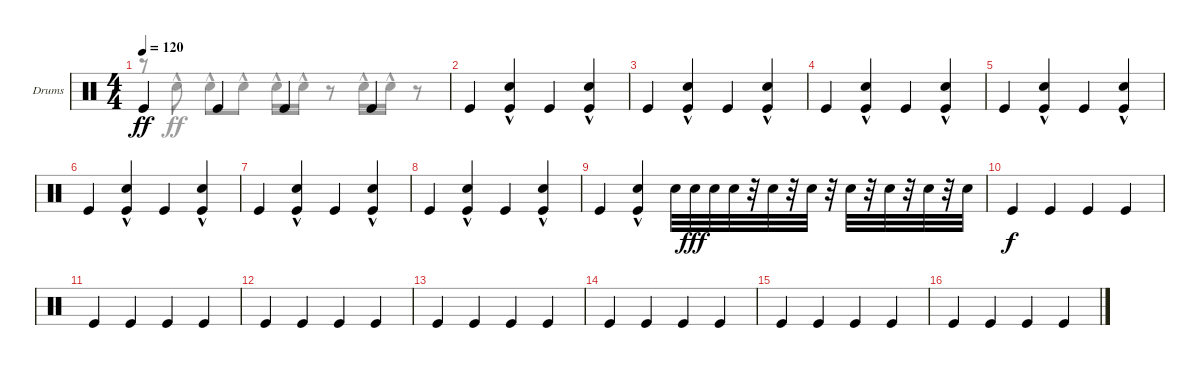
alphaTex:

\defaultSystemsLayout 4
\bracketExtendMode nobrackets
\firstSystemTrackNameOrientation horizontal
\otherSystemsTrackNameOrientation horizontal
\track ("Drumkit" "Drums") {instrument percussion}
\staff {score}
\articulation defaults
\voice
\ts (4 4)
\tempo 120
\clef neutral
\ks c "Kick (hit)".4{dy ff} "Kick (hit)".4 "Kick (hit)".4 "Kick (hit)".4
|
"Kick (hit)".4 ("Kick (hit)" "Snare (hit) 2"{hac}).4 "Kick (hit)".4 ("Kick (hit)" "Snare (hit) 2"{hac}).4 |
"Kick (hit)".4 ("Kick (hit)" "Snare (hit) 2"{hac}).4 "Kick (hit)".4 ("Kick (hit)" "Snare (hit) 2"{hac}).4 |
"Kick (hit)".4 ("Kick (hit)" "Snare (hit) 2"{hac}).4 "Kick (hit)".4 ("Kick (hit)" "Snare (hit) 2"{hac}).4 |
"Kick (hit)".4 ("Kick (hit)" "Snare (hit) 2"{hac}).4 "Kick (hit)".4 ("Kick (hit)" "Snare (hit) 2"{hac}).4 |
"Kick (hit)".4 ("Kick (hit)" "Snare (hit) 2"{hac}).4 "Kick (hit)".4 ("Kick (hit)" "Snare (hit) 2"{hac}).4 |
"Kick (hit)".4 ("Kick (hit)" "Snare (hit) 2"{hac}).4 "Kick (hit)".4 ("Kick (hit)" "Snare (hit) 2"{hac}).4 |
"Kick (hit)".4 ("Kick (hit)" "Snare (hit) 2"{hac}).4 "Kick (hit)".4 ("Kick (hit)" "Snare (hit) 2"{hac}).4 |
"Kick (hit)".4 ("Kick (hit)" "Snare (hit) 2"{hac}).4 "Snare (hit) 2".32 "Snare (hit) 2".32{dy fff} "Snare (hit) 2".32 "Snare (hit) 2".32 r.32 "Snare (hit) 2".32 r.32 "Snare (hit) 2".32 r.32 "Snare (hit) 2".32 r.32 "Snare (hit) 2".32 r.32 "Snare (hit) 2".32 r.32 "Snare (hit) 2".32 |
"Kick (hit)".4{dy f} "Kick (hit)".4 "Kick (hit)".4 "Kick (hit)".4 |
"Kick (hit)".4 "Kick (hit)".4 "Kick (hit)".4 "Kick (hit)".4 |
"Kick (hit)".4 "Kick (hit)".4 "Kick (hit)".4 "Kick (hit)".4 |
"Kick (hit)".4 "Kick (hit)".4 "Kick (hit)".4 "Kick (hit)".4 |
"Kick (hit)".4 "Kick (hit)".4 "Kick (hit)".4 "Kick (hit)".4 |
"Kick (hit)".4 "Kick (hit)".4 "Kick (hit)".4 "Kick (hit)".4 |
"Kick (hit)".4 "Kick (hit)".4 "Kick (hit)".4 "Kick (hit)".4
\voice
\clef neutral
\ottava regular
\simile none
\ks c
r.8{dy fff} "Snare (hit) 2"{hac}.8{dy ff} "Snare (hit) 2"{hac}.8 "Snare (hit) 2"{hac}.8 "Snare (hit) 2"{hac}.16 "Snare (hit) 2"{hac}.16 r.8 "Snare (hit) 2"{hac}.16 "Snare (hit) 2"{hac}.16 r.8 |
|
|
|
|
|
|
|
|
|
|
|
|
|
|
